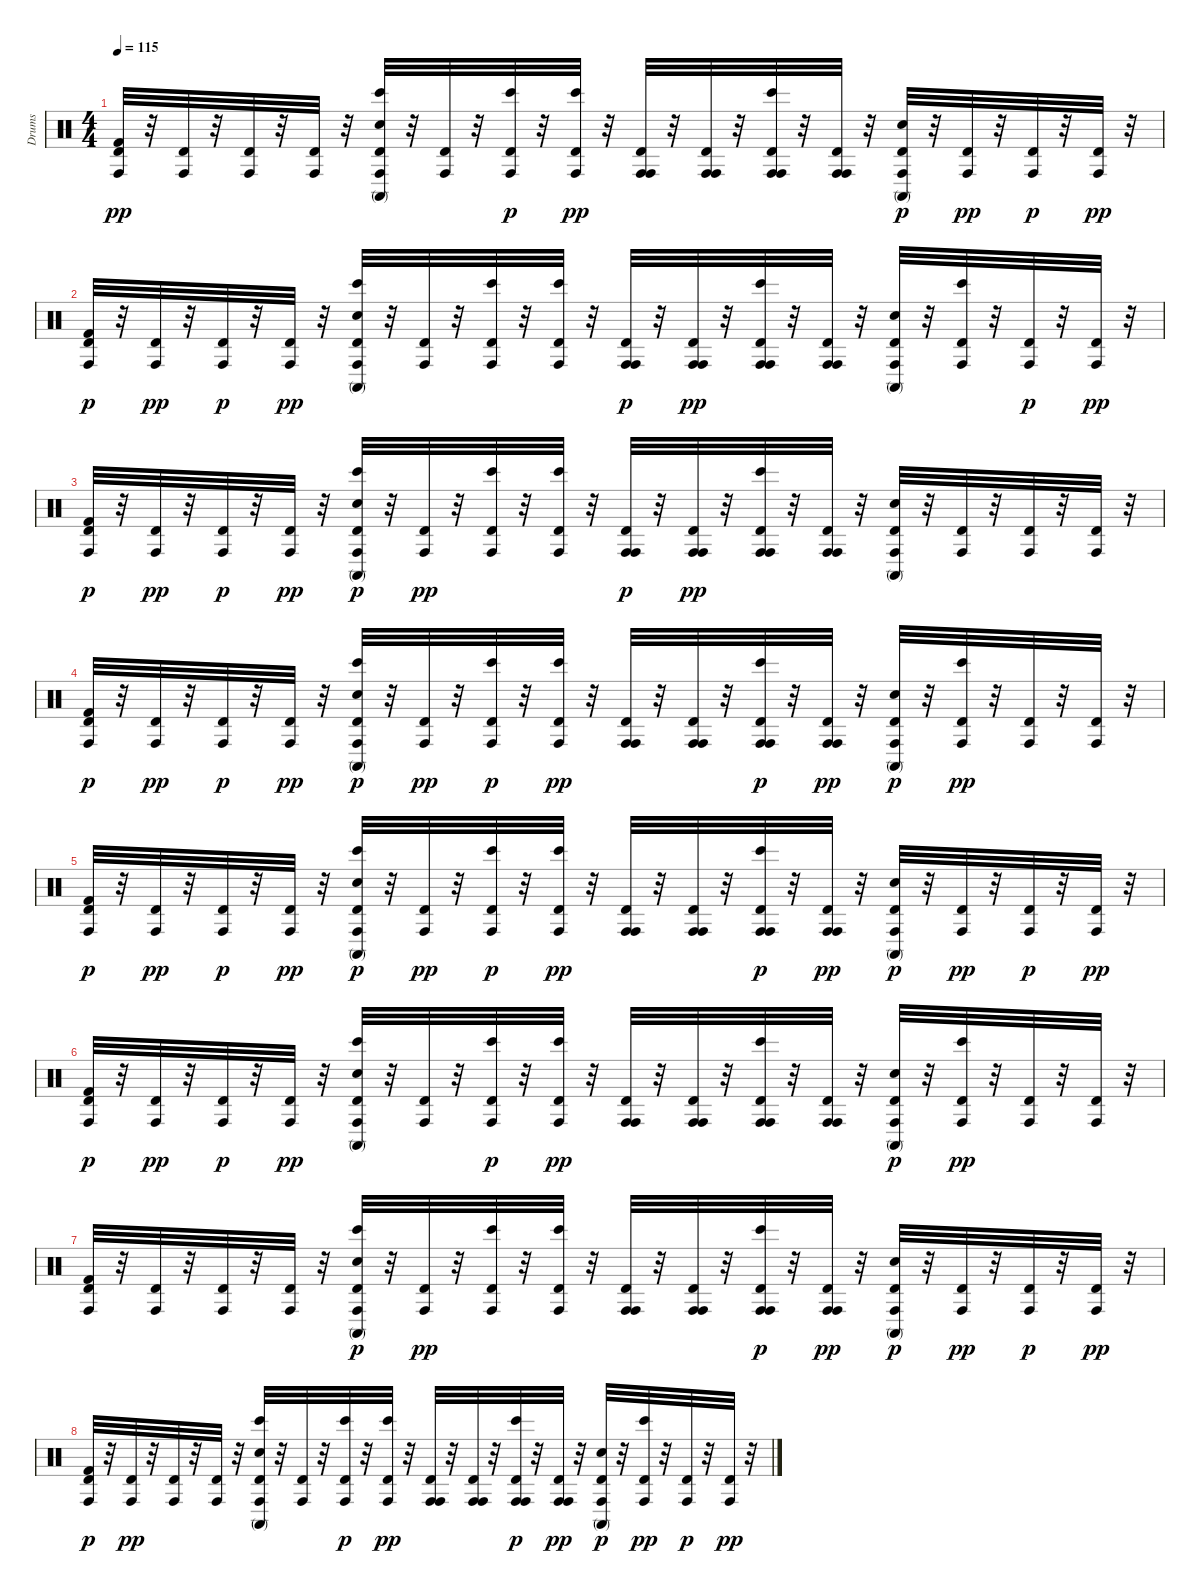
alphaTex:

\track ("Drums" "Drums") {instrument percussion}
\staff {score}
\articulation defaults
\ts (4 4)
\tempo 115
\clef neutral
\ks c
("Conga high (hit)" "Kick (hit) 2" "Timbale high (hit)").32{dy pp} r.32 ("Conga high (hit)" "Timbale high (hit)").32 r.32 ("Conga high (hit)" "Timbale high (hit)").32 r.32 ("Conga high (hit)" "Timbale high (hit)").32 r.32 ("Conga high (hit)" "Hand Clap (hit)" "Conga high (mute)" "Bongo High (hit)" "Timbale high (hit)").32 r.32 ("Conga high (hit)" "Timbale high (hit)").32 r.32 ("Conga high (hit)" "Bongo High (hit)" "Timbale high (hit)").32{dy p} r.32 ("Conga high (hit)" "Bongo High (hit)" "Timbale high (hit)").32{dy pp} r.32 ("Conga high (hit)" "Conga high (hit)" "Timbale high (hit)").32 r.32 ("Conga high (hit)" "Conga high (hit)" "Timbale high (hit)").32 r.32 ("Conga high (hit)" "Conga high (hit)" "Bongo High (hit)" "Timbale high (hit)").32 r.32 ("Conga high (hit)" "Conga high (hit)" "Timbale high (hit)").32 r.32 ("Conga high (hit)" "Hand Clap (hit)" "Conga high (mute)" "Timbale high (hit)").32{dy p} r.32 ("Conga high (hit)" "Timbale high (hit)").32{dy pp} r.32 ("Conga high (hit)" "Timbale high (hit)").32{dy p} r.32 ("Conga high (hit)" "Timbale high (hit)").32{dy pp} r.32 |
("Conga high (hit)" "Kick (hit) 2" "Timbale high (hit)").32{dy p} r.32 ("Conga high (hit)" "Timbale high (hit)").32{dy pp} r.32 ("Conga high (hit)" "Timbale high (hit)").32{dy p} r.32 ("Conga high (hit)" "Timbale high (hit)").32{dy pp} r.32 ("Conga high (hit)" "Hand Clap (hit)" "Conga high (mute)" "Bongo High (hit)" "Timbale high (hit)").32 r.32 ("Conga high (hit)" "Timbale high (hit)").32 r.32 ("Conga high (hit)" "Bongo High (hit)" "Timbale high (hit)").32 r.32 ("Conga high (hit)" "Bongo High (hit)" "Timbale high (hit)").32 r.32 ("Conga high (hit)" "Conga high (hit)" "Timbale high (hit)").32{dy p} r.32 ("Conga high (hit)" "Conga high (hit)" "Timbale high (hit)").32{dy pp} r.32 ("Conga high (hit)" "Conga high (hit)" "Bongo High (hit)" "Timbale high (hit)").32 r.32 ("Conga high (hit)" "Conga high (hit)" "Timbale high (hit)").32 r.32 ("Conga high (hit)" "Hand Clap (hit)" "Conga high (mute)" "Timbale high (hit)").32 r.32 ("Conga high (hit)" "Bongo High (hit)" "Timbale high (hit)").32 r.32 ("Conga high (hit)" "Timbale high (hit)").32{dy p} r.32 ("Conga high (hit)" "Timbale high (hit)").32{dy pp} r.32 |
("Conga high (hit)" "Kick (hit) 2" "Timbale high (hit)").32{dy p} r.32 ("Conga high (hit)" "Timbale high (hit)").32{dy pp} r.32 ("Conga high (hit)" "Timbale high (hit)").32{dy p} r.32 ("Conga high (hit)" "Timbale high (hit)").32{dy pp} r.32 ("Conga high (hit)" "Hand Clap (hit)" "Conga high (mute)" "Bongo High (hit)" "Timbale high (hit)").32{dy p} r.32 ("Conga high (hit)" "Timbale high (hit)").32{dy pp} r.32 ("Conga high (hit)" "Bongo High (hit)" "Timbale high (hit)").32 r.32 ("Conga high (hit)" "Bongo High (hit)" "Timbale high (hit)").32 r.32 ("Conga high (hit)" "Conga high (hit)" "Timbale high (hit)").32{dy p} r.32 ("Conga high (hit)" "Conga high (hit)" "Timbale high (hit)").32{dy pp} r.32 ("Conga high (hit)" "Conga high (hit)" "Bongo High (hit)" "Timbale high (hit)").32 r.32 ("Conga high (hit)" "Conga high (hit)" "Timbale high (hit)").32 r.32 ("Conga high (hit)" "Hand Clap (hit)" "Conga high (mute)" "Timbale high (hit)").32 r.32 ("Conga high (hit)" "Timbale high (hit)").32 r.32 ("Conga high (hit)" "Timbale high (hit)").32 r.32 ("Conga high (hit)" "Timbale high (hit)").32 r.32 |
("Conga high (hit)" "Kick (hit) 2" "Timbale high (hit)").32{dy p} r.32 ("Conga high (hit)" "Timbale high (hit)").32{dy pp} r.32 ("Conga high (hit)" "Timbale high (hit)").32{dy p} r.32 ("Conga high (hit)" "Timbale high (hit)").32{dy pp} r.32 ("Conga high (hit)" "Hand Clap (hit)" "Conga high (mute)" "Bongo High (hit)" "Timbale high (hit)").32{dy p} r.32 ("Conga high (hit)" "Timbale high (hit)").32{dy pp} r.32 ("Conga high (hit)" "Bongo High (hit)" "Timbale high (hit)").32{dy p} r.32 ("Conga high (hit)" "Bongo High (hit)" "Timbale high (hit)").32{dy pp} r.32 ("Conga high (hit)" "Conga high (hit)" "Timbale high (hit)").32 r.32 ("Conga high (hit)" "Conga high (hit)" "Timbale high (hit)").32 r.32 ("Conga high (hit)" "Conga high (hit)" "Bongo High (hit)" "Timbale high (hit)").32{dy p} r.32 ("Conga high (hit)" "Conga high (hit)" "Timbale high (hit)").32{dy pp} r.32 ("Conga high (hit)" "Hand Clap (hit)" "Conga high (mute)" "Timbale high (hit)").32{dy p} r.32 ("Conga high (hit)" "Bongo High (hit)" "Timbale high (hit)").32{dy pp} r.32 ("Conga high (hit)" "Timbale high (hit)").32 r.32 ("Conga high (hit)" "Timbale high (hit)").32 r.32 |
("Conga high (hit)" "Kick (hit) 2" "Timbale high (hit)").32{dy p} r.32 ("Conga high (hit)" "Timbale high (hit)").32{dy pp} r.32 ("Conga high (hit)" "Timbale high (hit)").32{dy p} r.32 ("Conga high (hit)" "Timbale high (hit)").32{dy pp} r.32 ("Conga high (hit)" "Hand Clap (hit)" "Conga high (mute)" "Bongo High (hit)" "Timbale high (hit)").32{dy p} r.32 ("Conga high (hit)" "Timbale high (hit)").32{dy pp} r.32 ("Conga high (hit)" "Bongo High (hit)" "Timbale high (hit)").32{dy p} r.32 ("Conga high (hit)" "Bongo High (hit)" "Timbale high (hit)").32{dy pp} r.32 ("Conga high (hit)" "Conga high (hit)" "Timbale high (hit)").32 r.32 ("Conga high (hit)" "Conga high (hit)" "Timbale high (hit)").32 r.32 ("Conga high (hit)" "Conga high (hit)" "Bongo High (hit)" "Timbale high (hit)").32{dy p} r.32 ("Conga high (hit)" "Conga high (hit)" "Timbale high (hit)").32{dy pp} r.32 ("Conga high (hit)" "Hand Clap (hit)" "Conga high (mute)" "Timbale high (hit)").32{dy p} r.32 ("Conga high (hit)" "Timbale high (hit)").32{dy pp} r.32 ("Conga high (hit)" "Timbale high (hit)").32{dy p} r.32 ("Conga high (hit)" "Timbale high (hit)").32{dy pp} r.32 |
("Conga high (hit)" "Kick (hit) 2" "Timbale high (hit)").32{dy p} r.32 ("Conga high (hit)" "Timbale high (hit)").32{dy pp} r.32 ("Conga high (hit)" "Timbale high (hit)").32{dy p} r.32 ("Conga high (hit)" "Timbale high (hit)").32{dy pp} r.32 ("Conga high (hit)" "Hand Clap (hit)" "Conga high (mute)" "Bongo High (hit)" "Timbale high (hit)").32 r.32 ("Conga high (hit)" "Timbale high (hit)").32 r.32 ("Conga high (hit)" "Bongo High (hit)" "Timbale high (hit)").32{dy p} r.32 ("Conga high (hit)" "Bongo High (hit)" "Timbale high (hit)").32{dy pp} r.32 ("Conga high (hit)" "Conga high (hit)" "Timbale high (hit)").32 r.32 ("Conga high (hit)" "Conga high (hit)" "Timbale high (hit)").32 r.32 ("Conga high (hit)" "Conga high (hit)" "Bongo High (hit)" "Timbale high (hit)").32 r.32 ("Conga high (hit)" "Conga high (hit)" "Timbale high (hit)").32 r.32 ("Conga high (hit)" "Hand Clap (hit)" "Conga high (mute)" "Timbale high (hit)").32{dy p} r.32 ("Conga high (hit)" "Bongo High (hit)" "Timbale high (hit)").32{dy pp} r.32 ("Conga high (hit)" "Timbale high (hit)").32 r.32 ("Conga high (hit)" "Timbale high (hit)").32 r.32 |
("Conga high (hit)" "Kick (hit) 2" "Timbale high (hit)").32 r.32 ("Conga high (hit)" "Timbale high (hit)").32 r.32 ("Conga high (hit)" "Timbale high (hit)").32 r.32 ("Conga high (hit)" "Timbale high (hit)").32 r.32 ("Conga high (hit)" "Hand Clap (hit)" "Conga high (mute)" "Bongo High (hit)" "Timbale high (hit)").32{dy p} r.32 ("Conga high (hit)" "Timbale high (hit)").32{dy pp} r.32 ("Conga high (hit)" "Bongo High (hit)" "Timbale high (hit)").32 r.32 ("Conga high (hit)" "Bongo High (hit)" "Timbale high (hit)").32 r.32 ("Conga high (hit)" "Conga high (hit)" "Timbale high (hit)").32 r.32 ("Conga high (hit)" "Conga high (hit)" "Timbale high (hit)").32 r.32 ("Conga high (hit)" "Conga high (hit)" "Bongo High (hit)" "Timbale high (hit)").32{dy p} r.32 ("Conga high (hit)" "Conga high (hit)" "Timbale high (hit)").32{dy pp} r.32 ("Conga high (hit)" "Hand Clap (hit)" "Conga high (mute)" "Timbale high (hit)").32{dy p} r.32 ("Conga high (hit)" "Timbale high (hit)").32{dy pp} r.32 ("Conga high (hit)" "Timbale high (hit)").32{dy p} r.32 ("Conga high (hit)" "Timbale high (hit)").32{dy pp} r.32 |
("Conga high (hit)" "Kick (hit) 2" "Timbale high (hit)").32{dy p} r.32 ("Conga high (hit)" "Timbale high (hit)").32{dy pp} r.32 ("Conga high (hit)" "Timbale high (hit)").32 r.32 ("Conga high (hit)" "Timbale high (hit)").32 r.32 ("Conga high (hit)" "Hand Clap (hit)" "Conga high (mute)" "Bongo High (hit)" "Timbale high (hit)").32 r.32 ("Conga high (hit)" "Timbale high (hit)").32 r.32 ("Conga high (hit)" "Bongo High (hit)" "Timbale high (hit)").32{dy p} r.32 ("Conga high (hit)" "Bongo High (hit)" "Timbale high (hit)").32{dy pp} r.32 ("Conga high (hit)" "Conga high (hit)" "Timbale high (hit)").32 r.32 ("Conga high (hit)" "Conga high (hit)" "Timbale high (hit)").32 r.32 ("Conga high (hit)" "Conga high (hit)" "Bongo High (hit)" "Timbale high (hit)").32{dy p} r.32 ("Conga high (hit)" "Conga high (hit)" "Timbale high (hit)").32{dy pp} r.32 ("Conga high (hit)" "Hand Clap (hit)" "Conga high (mute)" "Timbale high (hit)").32{dy p} r.32 ("Conga high (hit)" "Bongo High (hit)" "Timbale high (hit)").32{dy pp} r.32 ("Conga high (hit)" "Timbale high (hit)").32{dy p} r.32 ("Conga high (hit)" "Timbale high (hit)").32{dy pp} r.32
